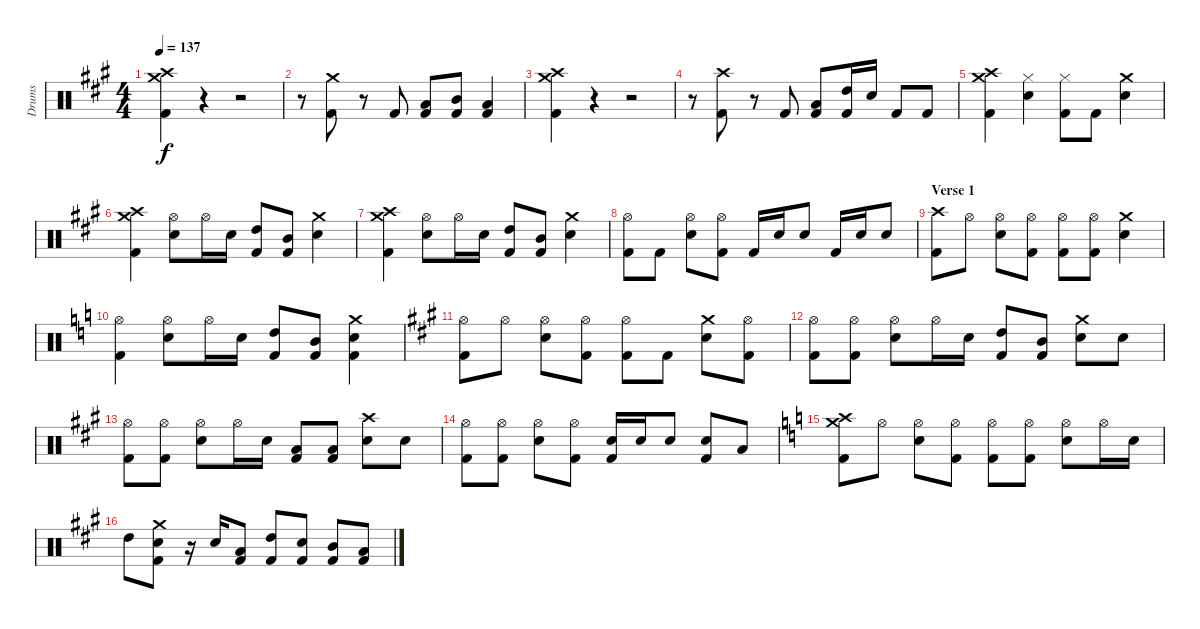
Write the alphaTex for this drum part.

\track ("Drums" "Drums") {instrument percussion}
\staff {score}
\articulation defaults
\ts (4 4)
\tempo 137
\clef neutral
\ks a
("Crash high (hit)" "Crash medium (hit)" "Kick (hit) 2").4{dy f} r.4 r.2 |
r.8 ("Crash medium (hit)" "Kick (hit) 2").8 r.8 "Kick (hit) 2".8 ("Low Tom (hit)" "Kick (hit) 2").8 ("Mid Tom (hit)" "Kick (hit) 2").8 ("Low Tom (hit)" "Kick (hit) 2").4 |
("Crash high (hit)" "Crash medium (hit)" "Kick (hit) 2").4 r.4 r.2 |
r.8 ("Crash high (hit)" "Kick (hit) 2").8 r.8 "Kick (hit) 2".8 ("Low Tom (hit)" "Kick (hit) 2").8 ("High Tom (hit)" "Kick (hit) 2").16 "Snare (hit) 2".16 "Kick (hit) 2".8 "Kick (hit) 2".8 |
("Crash high (hit)" "Crash medium (hit)" "Kick (hit) 2").4 ("Hi-Hat (closed)" "Snare (hit) 2").4 ("Hi-Hat (closed)" "Kick (hit) 2").8 "Kick (hit) 2".8 ("Crash medium (hit)" "Snare (hit) 2").4 |
("Crash high (hit)" "Crash medium (hit)" "Kick (hit) 2").4 ("Hi-Hat (open)" "Snare (hit) 2").8 "Hi-Hat (open)".16 "Snare (hit) 2".16 ("High Tom (hit)" "Kick (hit) 2").8 ("Mid Tom (hit)" "Kick (hit) 2").8 ("Crash medium (hit)" "Snare (hit) 2").4 |
("Crash high (hit)" "Crash medium (hit)" "Kick (hit) 2").4 ("Hi-Hat (open)" "Snare (hit) 2").8 "Hi-Hat (open)".16 "Snare (hit) 2".16 ("High Tom (hit)" "Kick (hit) 2").8 ("Mid Tom (hit)" "Kick (hit) 2").8 ("Crash medium (hit)" "Snare (hit) 2").4 |
("Hi-Hat (open)" "Kick (hit) 2").8 "Kick (hit) 2".8 ("Hi-Hat (open)" "Snare (hit) 2").8 ("Hi-Hat (open)" "Kick (hit) 2").8 "Kick (hit) 2".16 "Snare (hit) 2".16 "Snare (hit) 2".8 "Kick (hit) 2".16 "Snare (hit) 2".16 "Snare (hit) 2".8 |
\section ("" "Verse 1")
("Crash high (hit)" "Kick (hit) 2").8 "Hi-Hat (open)".8 ("Hi-Hat (open)" "Snare (hit) 2").8 ("Hi-Hat (open)" "Kick (hit) 2").8 ("Hi-Hat (open)" "Kick (hit) 2").8 ("Hi-Hat (open)" "Kick (hit) 2").8 ("Crash medium (hit)" "Snare (hit) 2").4 |
\ks c
("Hi-Hat (open)" "Kick (hit) 2").4 ("Hi-Hat (open)" "Snare (hit) 2").8 "Hi-Hat (open)".16 "Snare (hit) 2".16 ("High Tom (hit)" "Kick (hit) 2").8 ("Mid Tom (hit)" "Kick (hit) 2").8 ("Crash medium (hit)" "Snare (hit) 2" "Kick (hit) 2").4 |
\ks a
("Hi-Hat (open)" "Kick (hit) 2").8 "Hi-Hat (open)".8 ("Hi-Hat (open)" "Snare (hit) 2").8 ("Hi-Hat (open)" "Kick (hit) 2").8 ("Hi-Hat (open)" "Kick (hit) 2").8 "Kick (hit) 2".8 ("Crash medium (hit)" "Snare (hit) 2").8 ("Hi-Hat (open)" "Kick (hit) 2").8 |
("Hi-Hat (open)" "Kick (hit) 2").8 ("Hi-Hat (open)" "Kick (hit) 2").8 ("Hi-Hat (open)" "Snare (hit) 2").8 "Hi-Hat (open)".16 "Snare (hit) 2".16 ("High Tom (hit)" "Kick (hit) 2").8 ("Mid Tom (hit)" "Kick (hit) 2").8 ("Crash medium (hit)" "Snare (hit) 2").8 "Snare (hit) 2".8 |
("Hi-Hat (open)" "Kick (hit) 2").8 ("Hi-Hat (open)" "Kick (hit) 2").8 ("Hi-Hat (open)" "Snare (hit) 2").8 "Hi-Hat (open)".16 "Snare (hit) 2".16 ("Low Tom (hit)" "Kick (hit) 2").8 ("Low Tom (hit)" "Kick (hit) 2").8 ("Crash high (hit)" "Snare (hit) 2").8 "Snare (hit) 2".8 |
("Hi-Hat (open)" "Kick (hit) 2").8 ("Hi-Hat (open)" "Kick (hit) 2").8 ("Hi-Hat (open)" "Snare (hit) 2").8 ("Hi-Hat (open)" "Kick (hit) 2").8 ("Snare (hit) 2" "Kick (hit) 2").16 "Snare (hit) 2".16 "Snare (hit) 2".8 ("Snare (hit) 2" "Kick (hit) 2").8 "Low Tom (hit)".8 |
\ks c
("Crash high (hit)" "Crash medium (hit)" "Kick (hit) 2").8 "Hi-Hat (open)".8 ("Hi-Hat (open)" "Snare (hit) 2").8 ("Hi-Hat (open)" "Kick (hit) 2").8 ("Hi-Hat (open)" "Kick (hit) 2").8 ("Hi-Hat (open)" "Kick (hit) 2").8 ("Hi-Hat (open)" "Snare (hit) 2").8 "Hi-Hat (open)".16 "Snare (hit) 2".16 |
\ks a "High Tom (hit)".8
("Crash medium (hit)" "Snare (hit) 2" "Kick (hit) 2").8 r.16 "Snare (hit) 2".16 ("Low Tom (hit)" "Kick (hit) 2").8 ("High Tom (hit)" "Kick (hit) 2").8 ("Snare (hit) 2" "Kick (hit) 2").8 ("Mid Tom (hit)" "Kick (hit) 2").8 ("Low Tom (hit)" "Kick (hit) 2").8
